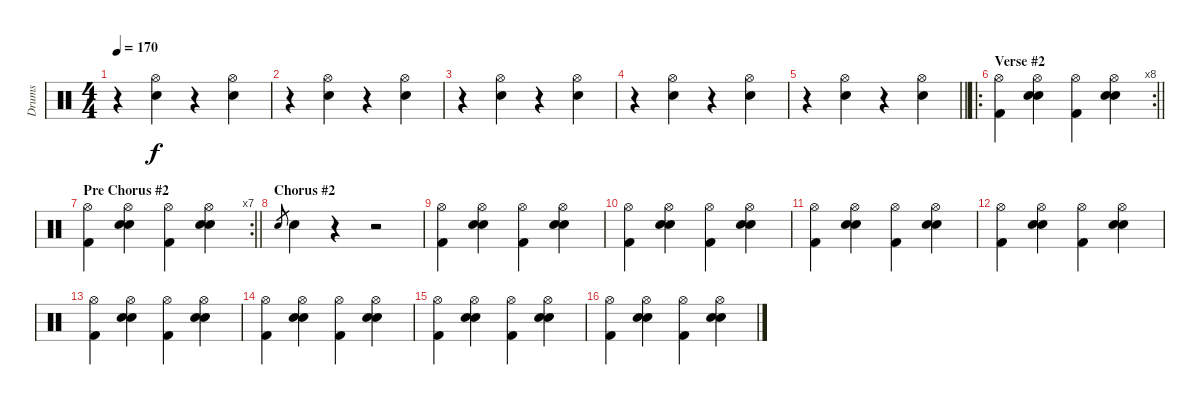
\track ("Drums" "Drums") {instrument percussion}
\staff {score}
\articulation defaults
\ts (4 4)
\tempo 170
\clef neutral
\ks c
r.4{dy f} ("Hi-Hat (open)" "Hand Clap (hit)").4 r.4 ("Hi-Hat (open)" "Hand Clap (hit)").4 |
r.4 ("Hi-Hat (open)" "Hand Clap (hit)").4 r.4 ("Hi-Hat (open)" "Hand Clap (hit)").4 |
r.4 ("Hi-Hat (open)" "Hand Clap (hit)").4 r.4 ("Hi-Hat (open)" "Hand Clap (hit)").4 |
r.4 ("Hi-Hat (open)" "Hand Clap (hit)").4 r.4 ("Hi-Hat (open)" "Hand Clap (hit)").4 |
\barLineRight lightlight
r.4 ("Hi-Hat (open)" "Hand Clap (hit)").4 r.4 ("Hi-Hat (open)" "Hand Clap (hit)").4 |
\ro
\rc 8
\section ("" "Verse #2")
\barLineRight lightlight
("Hi-Hat (open)" "Kick (hit) 2").4 ("Hi-Hat (open)" "Electric Snare (hit)" "Hand Clap (hit)").4 ("Hi-Hat (open)" "Kick (hit) 2").4 ("Hi-Hat (open)" "Electric Snare (hit)" "Hand Clap (hit)").4 |
\rc 7
\section ("" "Pre Chorus #2")
\barLineRight lightlight
("Hi-Hat (open)" "Kick (hit) 2").4 ("Hi-Hat (open)" "Electric Snare (hit)" "Hand Clap (hit)").4 ("Hi-Hat (open)" "Kick (hit) 2").4 ("Hi-Hat (open)" "Electric Snare (hit)" "Hand Clap (hit)").4 |
\section ("" "Chorus #2")
"Electric Snare (hit)".8{gr} "Electric Snare (hit)".4 r.4 r.2 |
("Hi-Hat (open)" "Kick (hit) 2").4 ("Hi-Hat (open)" "Electric Snare (hit)" "Hand Clap (hit)").4 ("Hi-Hat (open)" "Kick (hit) 2").4 ("Hi-Hat (open)" "Electric Snare (hit)" "Hand Clap (hit)").4 |
("Hi-Hat (open)" "Kick (hit) 2").4 ("Hi-Hat (open)" "Electric Snare (hit)" "Hand Clap (hit)").4 ("Hi-Hat (open)" "Kick (hit) 2").4 ("Hi-Hat (open)" "Electric Snare (hit)" "Hand Clap (hit)").4 |
("Hi-Hat (open)" "Kick (hit) 2").4 ("Hi-Hat (open)" "Electric Snare (hit)" "Hand Clap (hit)").4 ("Hi-Hat (open)" "Kick (hit) 2").4 ("Hi-Hat (open)" "Electric Snare (hit)" "Hand Clap (hit)").4 |
("Hi-Hat (open)" "Kick (hit) 2").4 ("Hi-Hat (open)" "Electric Snare (hit)" "Hand Clap (hit)").4 ("Hi-Hat (open)" "Kick (hit) 2").4 ("Hi-Hat (open)" "Electric Snare (hit)" "Hand Clap (hit)").4 |
("Hi-Hat (open)" "Kick (hit) 2").4 ("Hi-Hat (open)" "Electric Snare (hit)" "Hand Clap (hit)").4 ("Hi-Hat (open)" "Kick (hit) 2").4 ("Hi-Hat (open)" "Electric Snare (hit)" "Hand Clap (hit)").4 |
("Hi-Hat (open)" "Kick (hit) 2").4 ("Hi-Hat (open)" "Electric Snare (hit)" "Hand Clap (hit)").4 ("Hi-Hat (open)" "Kick (hit) 2").4 ("Hi-Hat (open)" "Electric Snare (hit)" "Hand Clap (hit)").4 |
("Hi-Hat (open)" "Kick (hit) 2").4 ("Hi-Hat (open)" "Electric Snare (hit)" "Hand Clap (hit)").4 ("Hi-Hat (open)" "Kick (hit) 2").4 ("Hi-Hat (open)" "Electric Snare (hit)" "Hand Clap (hit)").4 |
("Hi-Hat (open)" "Kick (hit) 2").4 ("Hi-Hat (open)" "Electric Snare (hit)" "Hand Clap (hit)").4 ("Hi-Hat (open)" "Kick (hit) 2").4 ("Hi-Hat (open)" "Electric Snare (hit)" "Hand Clap (hit)").4
